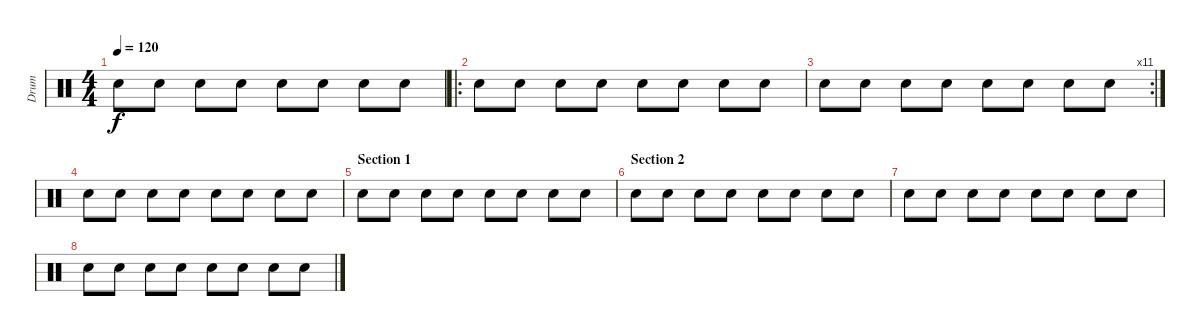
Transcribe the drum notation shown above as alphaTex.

\track ("Drum" "Drum") {instrument percussion}
\staff {score}
\articulation defaults
\ts (4 4)
\tempo 120
\clef neutral
\ks c "Snare (hit) 2".8{dy f} "Snare (hit) 2".8 "Snare (hit) 2".8 "Snare (hit) 2".8 "Snare (hit) 2".8 "Snare (hit) 2".8 "Snare (hit) 2".8 "Snare (hit) 2".8
|
\ro "Snare (hit) 2".8 "Snare (hit) 2".8 "Snare (hit) 2".8 "Snare (hit) 2".8 "Snare (hit) 2".8 "Snare (hit) 2".8 "Snare (hit) 2".8 "Snare (hit) 2".8
|
\rc 11 "Snare (hit) 2".8 "Snare (hit) 2".8 "Snare (hit) 2".8 "Snare (hit) 2".8 "Snare (hit) 2".8 "Snare (hit) 2".8 "Snare (hit) 2".8 "Snare (hit) 2".8
|
"Snare (hit) 2".8 "Snare (hit) 2".8 "Snare (hit) 2".8 "Snare (hit) 2".8 "Snare (hit) 2".8 "Snare (hit) 2".8 "Snare (hit) 2".8 "Snare (hit) 2".8 |
\section ("" "Section 1")
"Snare (hit) 2".8 "Snare (hit) 2".8 "Snare (hit) 2".8 "Snare (hit) 2".8 "Snare (hit) 2".8 "Snare (hit) 2".8 "Snare (hit) 2".8 "Snare (hit) 2".8 |
\section ("" "Section 2")
"Snare (hit) 2".8 "Snare (hit) 2".8 "Snare (hit) 2".8 "Snare (hit) 2".8 "Snare (hit) 2".8 "Snare (hit) 2".8 "Snare (hit) 2".8 "Snare (hit) 2".8 |
"Snare (hit) 2".8 "Snare (hit) 2".8 "Snare (hit) 2".8 "Snare (hit) 2".8 "Snare (hit) 2".8 "Snare (hit) 2".8 "Snare (hit) 2".8 "Snare (hit) 2".8 |
"Snare (hit) 2".8 "Snare (hit) 2".8 "Snare (hit) 2".8 "Snare (hit) 2".8 "Snare (hit) 2".8 "Snare (hit) 2".8 "Snare (hit) 2".8 "Snare (hit) 2".8
